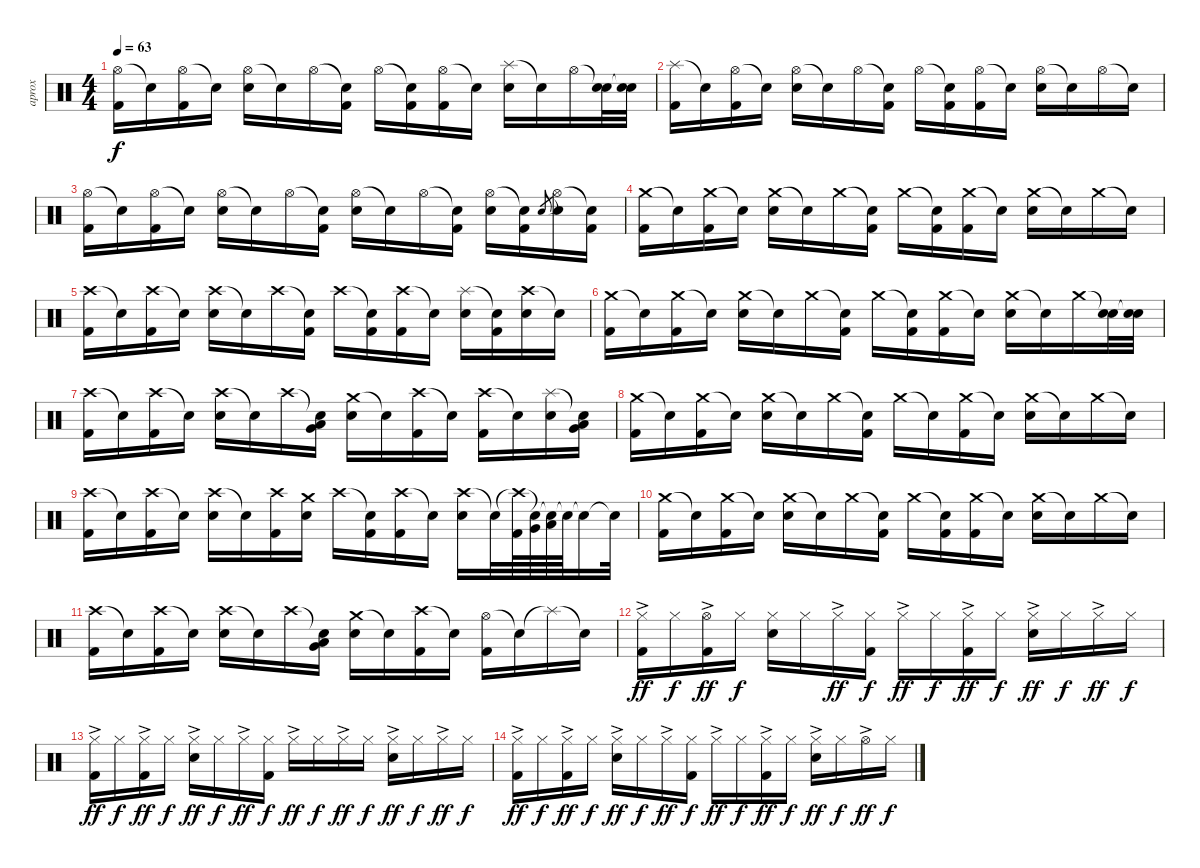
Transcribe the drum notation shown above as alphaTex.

\track ("aprox" "aprox") {instrument percussion}
\staff {score}
\articulation defaults
\ts (4 4)
\tempo 63
\clef neutral
\ks c
("Hi-Hat (open)" "Kick (hit) 2").16{dy f} "Snare (hit)"{t}.16 ("Hi-Hat (open)" "Kick (hit) 2").16 "Snare (hit)"{t}.16 ("Hi-Hat (open)" "Electric Snare (hit)").16 "Snare (hit)"{t}.16 "Hi-Hat (open)".16 ("Snare (hit)"{t} "Kick (hit) 2").16 "Hi-Hat (open)".16 ("Snare (hit)"{t} "Kick (hit) 2").16 ("Hi-Hat (open)" "Kick (hit) 2").16 "Snare (hit)"{t}.16 ("Splash (hit)" "Electric Snare (hit)").16 "Snare (hit)"{t}.16 "Hi-Hat (open)".16 ("Snare (hit)"{t} "Electric Snare (hit)").32 ("Snare (hit)"{t} "Electric Snare (hit)").32 |
("Splash (hit)" "Kick (hit) 2").16 "Snare (hit)"{t}.16 ("Hi-Hat (open)" "Kick (hit) 2").16 "Snare (hit)"{t}.16 ("Hi-Hat (open)" "Electric Snare (hit)").16 "Snare (hit)"{t}.16 "Hi-Hat (open)".16 ("Snare (hit)"{t} "Kick (hit) 2").16 "Hi-Hat (open)".16 ("Snare (hit)"{t} "Kick (hit) 2").16 ("Hi-Hat (open)" "Kick (hit) 2").16 "Snare (hit)"{t}.16 ("Hi-Hat (open)" "Electric Snare (hit)").16 "Snare (hit)"{t}.16 "Hi-Hat (open)".16 "Snare (hit)"{t}.16 |
("Hi-Hat (open)" "Kick (hit) 2").16 "Snare (hit)"{t}.16 ("Hi-Hat (open)" "Kick (hit) 2").16 "Snare (hit)"{t}.16 ("Hi-Hat (open)" "Electric Snare (hit)").16 "Snare (hit)"{t}.16 "Hi-Hat (open)".16 ("Snare (hit)"{t} "Kick (hit) 2").16 ("Hi-Hat (open)" "Electric Snare (hit)").16 "Snare (hit)"{t}.16 "Hi-Hat (open)".16 ("Snare (hit)"{t} "Kick (hit) 2").16 ("Hi-Hat (open)" "Electric Snare (hit)").16 ("Snare (hit)"{t} "Kick (hit) 2").16 "Electric Snare (hit)".8{gr} ("Hi-Hat (open)"{t} "Electric Snare (hit)").16 ("Snare (hit)"{t} "Kick (hit) 2").16 |
("Crash medium (hit)" "Kick (hit) 2").16 "Snare (hit)"{t}.16 ("Crash medium (hit)" "Kick (hit) 2").16 "Snare (hit)"{t}.16 ("Crash medium (hit)" "Electric Snare (hit)").16 "Snare (hit)"{t}.16 "Crash medium (hit)".16 ("Snare (hit)"{t} "Kick (hit) 2").16 "Crash medium (hit)".16 ("Snare (hit)"{t} "Kick (hit) 2").16 ("Crash medium (hit)" "Kick (hit) 2").16 "Snare (hit)"{t}.16 ("Crash medium (hit)" "Electric Snare (hit)").16 "Snare (hit)"{t}.16 "Crash medium (hit)".16 "Snare (hit)"{t}.16 |
("Crash high (hit)" "Kick (hit) 2").16 "Snare (hit)"{t}.16 ("Crash high (hit)" "Kick (hit) 2").16 "Snare (hit)"{t}.16 ("Crash high (hit)" "Electric Snare (hit)").16 "Snare (hit)"{t}.16 "Crash high (hit)".16 ("Snare (hit)"{t} "Kick (hit) 2").16 "Crash high (hit)".16 ("Snare (hit)"{t} "Kick (hit) 2").16 ("Crash high (hit)" "Kick (hit) 2").16 "Snare (hit)"{t}.16 ("Splash (hit)" "Electric Snare (hit)").16 ("Snare (hit)"{t} "Kick (hit) 2").16 ("Crash high (hit)" "Electric Snare (hit)").16 "Snare (hit)"{t}.16 |
("Crash medium (hit)" "Kick (hit) 2").16 "Snare (hit)"{t}.16 ("Crash medium (hit)" "Kick (hit) 2").16 "Snare (hit)"{t}.16 ("Crash medium (hit)" "Electric Snare (hit)").16 "Snare (hit)"{t}.16 "Crash medium (hit)".16 ("Snare (hit)"{t} "Kick (hit) 2").16 "Crash medium (hit)".16 ("Snare (hit)"{t} "Kick (hit) 2").16 ("Crash medium (hit)" "Kick (hit) 2").16 "Snare (hit)"{t}.16 ("Crash medium (hit)" "Electric Snare (hit)").16 "Snare (hit)"{t}.16 "Crash medium (hit)".16 ("Snare (hit)"{t} "Electric Snare (hit)").32 ("Snare (hit)"{t} "Electric Snare (hit)").32 |
("Crash high (hit)" "Kick (hit) 2").16 "Snare (hit)"{t}.16 ("Crash high (hit)" "Kick (hit) 2").16 "Snare (hit)"{t}.16 ("Crash high (hit)" "Electric Snare (hit)").16 "Snare (hit)"{t}.16 "Crash high (hit)".16 ("Snare (hit)"{t} "Low Floor Tom (hit)" "Very Low Tom (hit)").16 ("Crash medium (hit)" "Electric Snare (hit)").16 "Snare (hit)"{t}.16 ("Crash high (hit)" "Kick (hit) 2").16 "Snare (hit)"{t}.16 ("Crash high (hit)" "Kick (hit) 2").16 "Snare (hit)"{t}.16 ("Splash (hit)" "Electric Snare (hit)").16 ("Snare (hit)"{t} "Low Floor Tom (hit)" "Very Low Tom (hit)").16 |
("Crash medium (hit)" "Kick (hit) 2").16 "Snare (hit)"{t}.16 ("Crash medium (hit)" "Kick (hit) 2").16 "Snare (hit)"{t}.16 ("Crash medium (hit)" "Electric Snare (hit)").16 "Snare (hit)"{t}.16 "Crash medium (hit)".16 ("Snare (hit)"{t} "Kick (hit) 2").16 "Crash medium (hit)".16 "Snare (hit)"{t}.16 ("Crash medium (hit)" "Kick (hit) 2").16 "Snare (hit)"{t}.16 ("Crash medium (hit)" "Electric Snare (hit)").16 "Snare (hit)"{t}.16 "Crash medium (hit)".16 "Snare (hit)"{t}.16 |
("Crash high (hit)" "Kick (hit) 2").16 "Snare (hit)"{t}.16 ("Crash high (hit)" "Kick (hit) 2").16 "Snare (hit)"{t}.16 ("Crash high (hit)" "Electric Snare (hit)").16 "Snare (hit)"{t}.16 ("Crash high (hit)" "Kick (hit) 2").16 ("Crash medium (hit)" "Electric Snare (hit)").16 "Crash high (hit)".16 ("Snare (hit)"{t} "Kick (hit) 2").16 ("Crash high (hit)" "Kick (hit) 2").16 "Snare (hit)"{t}.16 ("Crash high (hit)" "Electric Snare (hit)").16 "Snare (hit)"{t}.32 ("Crash high (hit)"{t} "Kick (hit) 2").64 ("Snare (hit)"{t} "Very Low Tom (hit)").64 ("Snare (hit)"{t} "Low Floor Tom (hit)").64 "Snare (hit)"{t}.64 "Snare (hit)"{t}.16 "Snare (hit)"{t}.32 |
("Crash medium (hit)" "Kick (hit) 2").16 "Snare (hit)"{t}.16 ("Crash medium (hit)" "Kick (hit) 2").16 "Snare (hit)"{t}.16 ("Crash medium (hit)" "Electric Snare (hit)").16 "Snare (hit)"{t}.16 "Crash medium (hit)".16 ("Snare (hit)"{t} "Kick (hit) 2").16 "Crash medium (hit)".16 ("Snare (hit)"{t} "Kick (hit) 2").16 ("Crash medium (hit)" "Kick (hit) 2").16 "Snare (hit)"{t}.16 ("Crash medium (hit)" "Electric Snare (hit)").16 "Snare (hit)"{t}.16 "Crash medium (hit)".16 "Snare (hit)"{t}.16 |
("Crash high (hit)" "Kick (hit) 2").16 "Snare (hit)"{t}.16 ("Crash high (hit)" "Kick (hit) 2").16 "Snare (hit)"{t}.16 ("Crash high (hit)" "Electric Snare (hit)").16 "Snare (hit)"{t}.16 "Crash high (hit)".16 ("Snare (hit)"{t} "Low Floor Tom (hit)" "Very Low Tom (hit)").16 ("Crash medium (hit)" "Electric Snare (hit)").16 "Snare (hit)"{t}.16 ("Crash high (hit)" "Kick (hit) 2").16 "Snare (hit)"{t}.16 ("Hi-Hat (open)" "Kick (hit) 2").16 "Snare (hit)"{t}.16 "Splash (hit)"{t}.16 "Snare (hit)"{t}.16 |
("Hi-Hat (closed)"{ac} "Kick (hit) 2").16{dy ff} "Hi-Hat (closed)".16{dy f} ("Hi-Hat (open)"{ac} "Kick (hit) 2").16{dy ff} "Hi-Hat (closed)".16{dy f} ("Hi-Hat (closed)" "Electric Snare (hit)").16 "Hi-Hat (closed)".16 "Hi-Hat (closed)"{ac}.16{dy ff} ("Hi-Hat (closed)" "Kick (hit) 2").16{dy f} "Hi-Hat (closed)"{ac}.16{dy ff} "Hi-Hat (closed)".16{dy f} ("Hi-Hat (closed)"{ac} "Kick (hit) 2").16{dy ff} "Hi-Hat (closed)".16{dy f} ("Hi-Hat (closed)"{ac} "Electric Snare (hit)").16{dy ff} "Hi-Hat (closed)".16{dy f} "Hi-Hat (closed)"{ac}.16{dy ff} "Hi-Hat (closed)".16{dy f} |
("Hi-Hat (closed)"{ac} "Kick (hit) 2").16{dy ff} "Hi-Hat (closed)".16{dy f} ("Hi-Hat (closed)"{ac} "Kick (hit) 2").16{dy ff} "Hi-Hat (closed)".16{dy f} ("Hi-Hat (closed)"{ac} "Electric Snare (hit)").16{dy ff} "Hi-Hat (closed)".16{dy f} "Hi-Hat (closed)"{ac}.16{dy ff} ("Hi-Hat (closed)" "Kick (hit) 2").16{dy f} "Hi-Hat (closed)"{ac}.16{dy ff} "Hi-Hat (closed)".16{dy f} "Hi-Hat (closed)"{ac}.16{dy ff} "Hi-Hat (closed)".16{dy f} ("Hi-Hat (closed)"{ac} "Electric Snare (hit)").16{dy ff} "Hi-Hat (closed)".16{dy f} "Hi-Hat (closed)"{ac}.16{dy ff} "Hi-Hat (closed)".16{dy f} |
("Hi-Hat (closed)"{ac} "Kick (hit) 2").16{dy ff} "Hi-Hat (closed)".16{dy f} ("Hi-Hat (closed)"{ac} "Kick (hit) 2").16{dy ff} "Hi-Hat (closed)".16{dy f} ("Hi-Hat (closed)"{ac} "Electric Snare (hit)").16{dy ff} "Hi-Hat (closed)".16{dy f} "Hi-Hat (closed)"{ac}.16{dy ff} ("Hi-Hat (closed)" "Kick (hit) 2").16{dy f} "Hi-Hat (closed)"{ac}.16{dy ff} "Hi-Hat (closed)".16{dy f} ("Hi-Hat (closed)"{ac} "Kick (hit) 2").16{dy ff} "Hi-Hat (closed)".16{dy f} ("Hi-Hat (closed)"{ac} "Electric Snare (hit)").16{dy ff} "Hi-Hat (closed)".16{dy f} "Hi-Hat (open)"{ac}.16{dy ff} "Hi-Hat (closed)".16{dy f}
